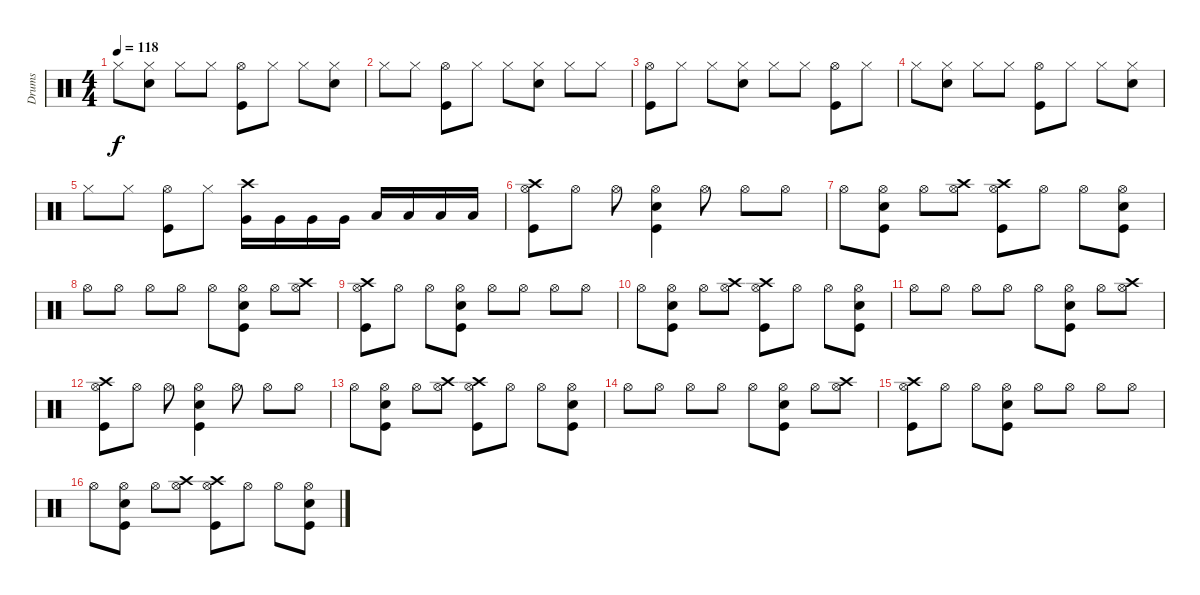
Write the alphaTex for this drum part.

\track ("Drums" "Drums") {instrument percussion}
\staff {score}
\articulation defaults
\ts (4 4)
\tempo 118
\clef neutral
\ks c "Hi-Hat (closed)".8{dy f}
("Snare (hit) 2" "Hi-Hat (closed)").8 "Hi-Hat (closed)".8 "Hi-Hat (closed)".8 ("Kick (hit)" "Hi-Hat (open)").8 "Hi-Hat (closed)".8 "Hi-Hat (closed)".8 ("Snare (hit) 2" "Hi-Hat (closed)").8 |
"Hi-Hat (closed)".8 "Hi-Hat (closed)".8 ("Kick (hit)" "Hi-Hat (open)").8 "Hi-Hat (closed)".8 "Hi-Hat (closed)".8 ("Snare (hit) 2" "Hi-Hat (closed)").8 "Hi-Hat (closed)".8 "Hi-Hat (closed)".8 |
("Kick (hit)" "Hi-Hat (open)").8 "Hi-Hat (closed)".8 "Hi-Hat (closed)".8 ("Snare (hit) 2" "Hi-Hat (closed)").8 "Hi-Hat (closed)".8 "Hi-Hat (closed)".8 ("Kick (hit)" "Hi-Hat (open)").8 "Hi-Hat (closed)".8 |
"Hi-Hat (closed)".8 ("Snare (hit) 2" "Hi-Hat (closed)").8 "Hi-Hat (closed)".8 "Hi-Hat (closed)".8 ("Kick (hit)" "Hi-Hat (open)").8 "Hi-Hat (closed)".8 "Hi-Hat (closed)".8 ("Snare (hit) 2" "Hi-Hat (closed)").8 |
"Hi-Hat (closed)".8 "Hi-Hat (closed)".8 ("Kick (hit)" "Hi-Hat (open)").8 "Hi-Hat (closed)".8 ("Very Low Tom (hit)" "Crash high (hit)").16 "Very Low Tom (hit)".16 "Very Low Tom (hit)".16 "Very Low Tom (hit)".16 "Low Floor Tom (hit)".16 "Low Floor Tom (hit)".16 "Low Floor Tom (hit)".16 "Low Floor Tom (hit)".16 |
("Kick (hit)" "Hi-Hat (open)" "Crash high (hit)").8 "Hi-Hat (open)".8 "Hi-Hat (open)".8 ("Kick (hit)" "Snare (hit) 2" "Hi-Hat (open)").4 "Hi-Hat (open)".8 "Hi-Hat (open)".8 "Hi-Hat (open)".8 |
"Hi-Hat (open)".8 ("Kick (hit)" "Snare (hit) 2" "Hi-Hat (open)").8 "Hi-Hat (open)".8 ("Hi-Hat (open)" "Crash high (hit)").8 ("Kick (hit)" "Hi-Hat (open)" "Crash high (hit)").8 "Hi-Hat (open)".8 "Hi-Hat (open)".8 ("Kick (hit)" "Snare (hit) 2" "Hi-Hat (open)").8 |
"Hi-Hat (open)".8 "Hi-Hat (open)".8 "Hi-Hat (open)".8 "Hi-Hat (open)".8 "Hi-Hat (open)".8 ("Kick (hit)" "Snare (hit) 2" "Hi-Hat (open)").8 "Hi-Hat (open)".8 ("Hi-Hat (open)" "Crash high (hit)").8 |
("Kick (hit)" "Hi-Hat (open)" "Crash high (hit)").8 "Hi-Hat (open)".8 "Hi-Hat (open)".8 ("Kick (hit)" "Snare (hit) 2" "Hi-Hat (open)").8 "Hi-Hat (open)".8 "Hi-Hat (open)".8 "Hi-Hat (open)".8 "Hi-Hat (open)".8 |
"Hi-Hat (open)".8 ("Kick (hit)" "Snare (hit) 2" "Hi-Hat (open)").8 "Hi-Hat (open)".8 ("Hi-Hat (open)" "Crash high (hit)").8 ("Kick (hit)" "Hi-Hat (open)" "Crash high (hit)").8 "Hi-Hat (open)".8 "Hi-Hat (open)".8 ("Kick (hit)" "Snare (hit) 2" "Hi-Hat (open)").8 |
"Hi-Hat (open)".8 "Hi-Hat (open)".8 "Hi-Hat (open)".8 "Hi-Hat (open)".8 "Hi-Hat (open)".8 ("Kick (hit)" "Snare (hit) 2" "Hi-Hat (open)").8 "Hi-Hat (open)".8 ("Hi-Hat (open)" "Crash high (hit)").8 |
("Kick (hit)" "Hi-Hat (open)" "Crash high (hit)").8 "Hi-Hat (open)".8 "Hi-Hat (open)".8 ("Kick (hit)" "Snare (hit) 2" "Hi-Hat (open)").4 "Hi-Hat (open)".8 "Hi-Hat (open)".8 "Hi-Hat (open)".8 |
"Hi-Hat (open)".8 ("Kick (hit)" "Snare (hit) 2" "Hi-Hat (open)").8 "Hi-Hat (open)".8 ("Hi-Hat (open)" "Crash high (hit)").8 ("Kick (hit)" "Hi-Hat (open)" "Crash high (hit)").8 "Hi-Hat (open)".8 "Hi-Hat (open)".8 ("Kick (hit)" "Snare (hit) 2" "Hi-Hat (open)").8 |
"Hi-Hat (open)".8 "Hi-Hat (open)".8 "Hi-Hat (open)".8 "Hi-Hat (open)".8 "Hi-Hat (open)".8 ("Kick (hit)" "Snare (hit) 2" "Hi-Hat (open)").8 "Hi-Hat (open)".8 ("Hi-Hat (open)" "Crash high (hit)").8 |
("Kick (hit)" "Hi-Hat (open)" "Crash high (hit)").8 "Hi-Hat (open)".8 "Hi-Hat (open)".8 ("Kick (hit)" "Snare (hit) 2" "Hi-Hat (open)").8 "Hi-Hat (open)".8 "Hi-Hat (open)".8 "Hi-Hat (open)".8 "Hi-Hat (open)".8 |
"Hi-Hat (open)".8 ("Kick (hit)" "Snare (hit) 2" "Hi-Hat (open)").8 "Hi-Hat (open)".8 ("Hi-Hat (open)" "Crash high (hit)").8 ("Kick (hit)" "Hi-Hat (open)" "Crash high (hit)").8 "Hi-Hat (open)".8 "Hi-Hat (open)".8 ("Kick (hit)" "Snare (hit) 2" "Hi-Hat (open)").8
